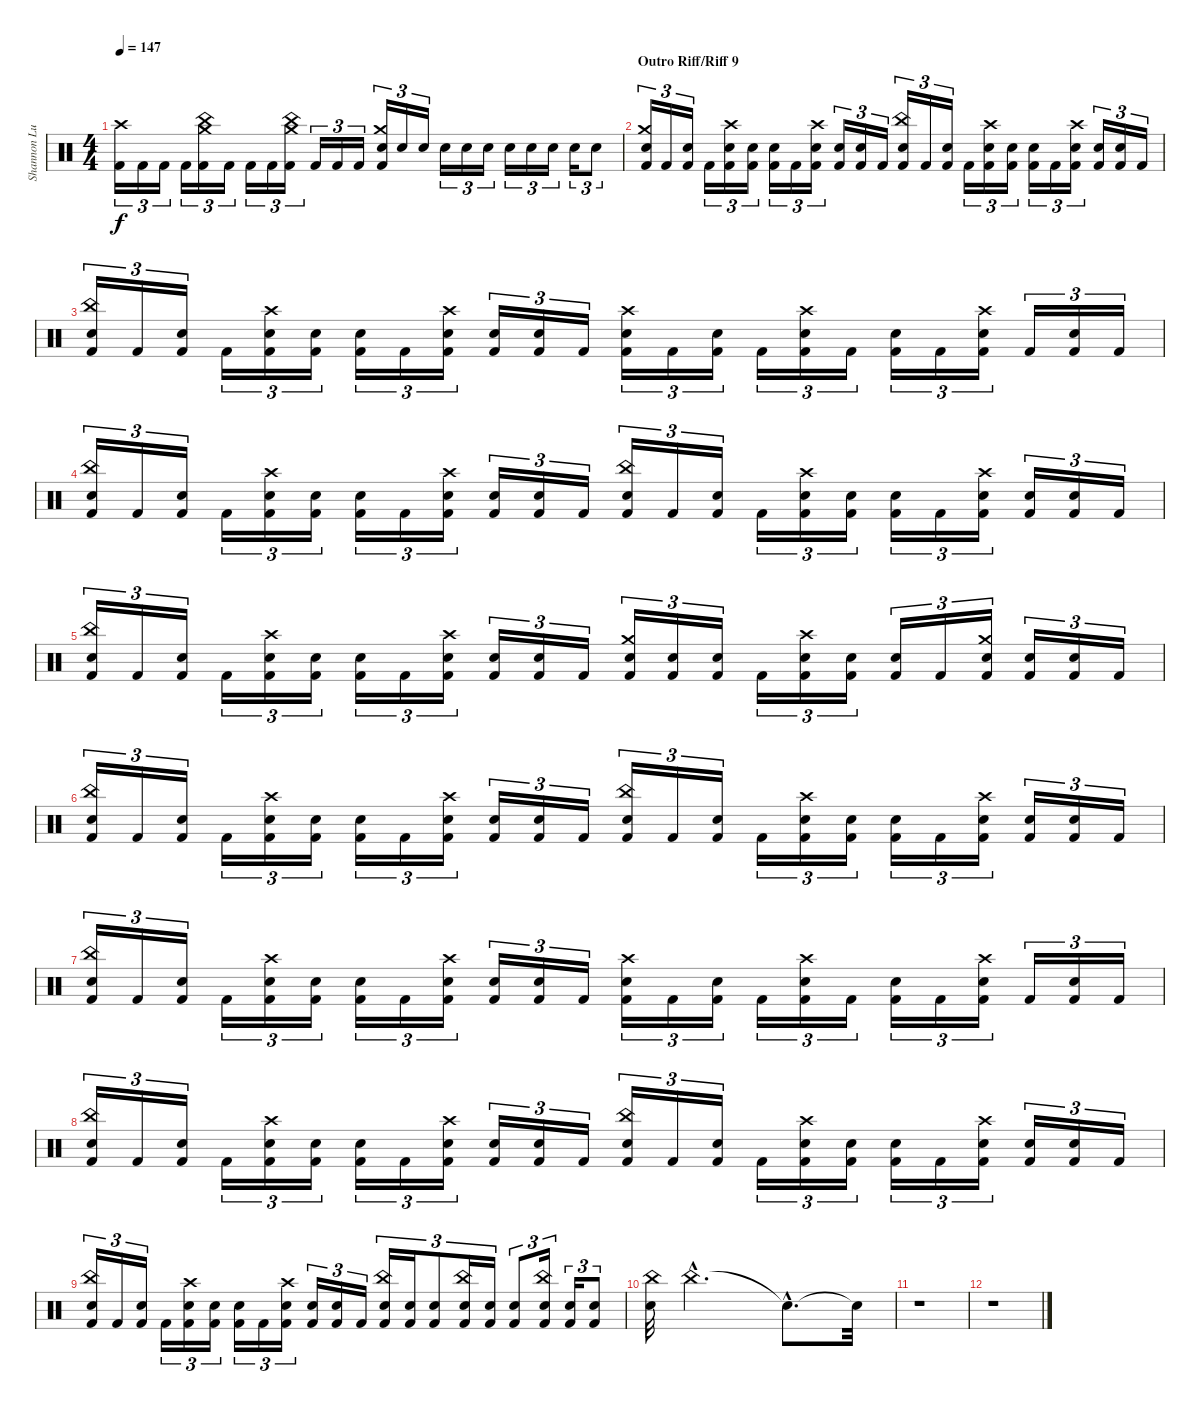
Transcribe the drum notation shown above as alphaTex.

\track ("Shannon Lucas (Drums)" "Shannon Lu") {instrument percussion}
\staff {score}
\articulation defaults
\ts (4 4)
\tempo 147
\clef neutral
\ks c
("Crash high (hit)" "Kick (hit) 2").16{tu (3 2) dy f} "Kick (hit) 2".16{tu (3 2)} "Kick (hit) 2".16{tu (3 2)} "Kick (hit) 2".16{tu (3 2)} ("Crash medium (hit)" "China (hit)" "Kick (hit) 2").16{tu (3 2)} "Kick (hit) 2".16{tu (3 2)} "Kick (hit) 2".16{tu (3 2)} "Kick (hit) 2".16{tu (3 2)} ("Crash medium (hit)" "China (hit)" "Kick (hit) 2").16{tu (3 2)} "Kick (hit) 2".16{tu (3 2)} "Kick (hit) 2".16{tu (3 2)} "Kick (hit) 2".16{tu (3 2)} ("Snare (hit) 2" "Crash medium (hit)" "Kick (hit) 2").16{tu (3 2)} "Snare (hit) 2".16{tu (3 2)} "Snare (hit) 2".16{tu (3 2)} "Snare (hit) 2".16{tu (3 2)} "Snare (hit) 2".16{tu (3 2)} "Snare (hit) 2".16{tu (3 2)} "Snare (hit) 2".16{tu (3 2)} "Snare (hit) 2".16{tu (3 2)} "Snare (hit) 2".16{tu (3 2)} "Snare (hit) 2".16{tu (3 2)} "Snare (hit) 2".8{tu (3 2)} |
\section ("" "Outro Riff/Riff 9")
("Crash medium (hit)" "Snare (hit) 2" "Kick (hit) 2").16{tu (3 2)} "Kick (hit) 2".16{tu (3 2)} ("Snare (hit) 2" "Kick (hit) 2").16{tu (3 2)} "Kick (hit) 2".16{tu (3 2)} ("Crash high (hit)" "Snare (hit) 2" "Kick (hit) 2").16{tu (3 2)} ("Snare (hit) 2" "Kick (hit) 2").16{tu (3 2)} ("Snare (hit) 2" "Kick (hit) 2").16{tu (3 2)} "Kick (hit) 2".16{tu (3 2)} ("Crash high (hit)" "Snare (hit) 2" "Kick (hit) 2").16{tu (3 2)} ("Snare (hit) 2" "Kick (hit) 2").16{tu (3 2)} ("Snare (hit) 2" "Kick (hit) 2").16{tu (3 2)} "Kick (hit) 2".16{tu (3 2)} ("China (hit)" "Snare (hit) 2" "Kick (hit) 2").16{tu (3 2)} "Kick (hit) 2".16{tu (3 2)} ("Snare (hit) 2" "Kick (hit) 2").16{tu (3 2)} "Kick (hit) 2".16{tu (3 2)} ("Crash high (hit)" "Snare (hit) 2" "Kick (hit) 2").16{tu (3 2)} ("Snare (hit) 2" "Kick (hit) 2").16{tu (3 2)} ("Snare (hit) 2" "Kick (hit) 2").16{tu (3 2)} "Kick (hit) 2".16{tu (3 2)} ("Crash high (hit)" "Snare (hit) 2" "Kick (hit) 2").16{tu (3 2)} ("Snare (hit) 2" "Kick (hit) 2").16{tu (3 2)} ("Snare (hit) 2" "Kick (hit) 2").16{tu (3 2)} "Kick (hit) 2".16{tu (3 2)} |
("China (hit)" "Snare (hit) 2" "Kick (hit) 2").16{tu (3 2)} "Kick (hit) 2".16{tu (3 2)} ("Snare (hit) 2" "Kick (hit) 2").16{tu (3 2)} "Kick (hit) 2".16{tu (3 2)} ("Crash high (hit)" "Snare (hit) 2" "Kick (hit) 2").16{tu (3 2)} ("Snare (hit) 2" "Kick (hit) 2").16{tu (3 2)} ("Snare (hit) 2" "Kick (hit) 2").16{tu (3 2)} "Kick (hit) 2".16{tu (3 2)} ("Crash high (hit)" "Snare (hit) 2" "Kick (hit) 2").16{tu (3 2)} ("Snare (hit) 2" "Kick (hit) 2").16{tu (3 2)} ("Snare (hit) 2" "Kick (hit) 2").16{tu (3 2)} "Kick (hit) 2".16{tu (3 2)} ("Crash high (hit)" "Snare (hit) 2" "Kick (hit) 2").16{tu (3 2)} "Kick (hit) 2".16{tu (3 2)} ("Snare (hit) 2" "Kick (hit) 2").16{tu (3 2)} "Kick (hit) 2".16{tu (3 2)} ("Crash high (hit)" "Snare (hit) 2" "Kick (hit) 2").16{tu (3 2)} "Kick (hit) 2".16{tu (3 2)} ("Snare (hit) 2" "Kick (hit) 2").16{tu (3 2)} "Kick (hit) 2".16{tu (3 2)} ("Crash high (hit)" "Snare (hit) 2" "Kick (hit) 2").16{tu (3 2)} "Kick (hit) 2".16{tu (3 2)} ("Snare (hit) 2" "Kick (hit) 2").16{tu (3 2)} "Kick (hit) 2".16{tu (3 2)} |
("China (hit)" "Snare (hit) 2" "Kick (hit) 2").16{tu (3 2)} "Kick (hit) 2".16{tu (3 2)} ("Snare (hit) 2" "Kick (hit) 2").16{tu (3 2)} "Kick (hit) 2".16{tu (3 2)} ("Crash high (hit)" "Snare (hit) 2" "Kick (hit) 2").16{tu (3 2)} ("Snare (hit) 2" "Kick (hit) 2").16{tu (3 2)} ("Snare (hit) 2" "Kick (hit) 2").16{tu (3 2)} "Kick (hit) 2".16{tu (3 2)} ("Crash high (hit)" "Snare (hit) 2" "Kick (hit) 2").16{tu (3 2)} ("Snare (hit) 2" "Kick (hit) 2").16{tu (3 2)} ("Snare (hit) 2" "Kick (hit) 2").16{tu (3 2)} "Kick (hit) 2".16{tu (3 2)} ("China (hit)" "Snare (hit) 2" "Kick (hit) 2").16{tu (3 2)} "Kick (hit) 2".16{tu (3 2)} ("Snare (hit) 2" "Kick (hit) 2").16{tu (3 2)} "Kick (hit) 2".16{tu (3 2)} ("Crash high (hit)" "Snare (hit) 2" "Kick (hit) 2").16{tu (3 2)} ("Snare (hit) 2" "Kick (hit) 2").16{tu (3 2)} ("Snare (hit) 2" "Kick (hit) 2").16{tu (3 2)} "Kick (hit) 2".16{tu (3 2)} ("Crash high (hit)" "Snare (hit) 2" "Kick (hit) 2").16{tu (3 2)} ("Snare (hit) 2" "Kick (hit) 2").16{tu (3 2)} ("Snare (hit) 2" "Kick (hit) 2").16{tu (3 2)} "Kick (hit) 2".16{tu (3 2)} |
("China (hit)" "Snare (hit) 2" "Kick (hit) 2").16{tu (3 2)} "Kick (hit) 2".16{tu (3 2)} ("Snare (hit) 2" "Kick (hit) 2").16{tu (3 2)} "Kick (hit) 2".16{tu (3 2)} ("Crash high (hit)" "Snare (hit) 2" "Kick (hit) 2").16{tu (3 2)} ("Snare (hit) 2" "Kick (hit) 2").16{tu (3 2)} ("Snare (hit) 2" "Kick (hit) 2").16{tu (3 2)} "Kick (hit) 2".16{tu (3 2)} ("Crash high (hit)" "Snare (hit) 2" "Kick (hit) 2").16{tu (3 2)} ("Snare (hit) 2" "Kick (hit) 2").16{tu (3 2)} ("Snare (hit) 2" "Kick (hit) 2").16{tu (3 2)} "Kick (hit) 2".16{tu (3 2)} ("Crash medium (hit)" "Snare (hit) 2" "Kick (hit) 2").16{tu (3 2)} ("Snare (hit) 2" "Kick (hit) 2").16{tu (3 2)} ("Snare (hit) 2" "Kick (hit) 2").16{tu (3 2)} "Kick (hit) 2".16{tu (3 2)} ("Crash high (hit)" "Snare (hit) 2" "Kick (hit) 2").16{tu (3 2)} ("Snare (hit) 2" "Kick (hit) 2").16{tu (3 2)} ("Snare (hit) 2" "Kick (hit) 2").16{tu (3 2)} "Kick (hit) 2".16{tu (3 2)} ("Crash medium (hit)" "Snare (hit) 2" "Kick (hit) 2").16{tu (3 2)} ("Snare (hit) 2" "Kick (hit) 2").16{tu (3 2)} ("Snare (hit) 2" "Kick (hit) 2").16{tu (3 2)} "Kick (hit) 2".16{tu (3 2)} |
("China (hit)" "Snare (hit) 2" "Kick (hit) 2").16{tu (3 2)} "Kick (hit) 2".16{tu (3 2)} ("Snare (hit) 2" "Kick (hit) 2").16{tu (3 2)} "Kick (hit) 2".16{tu (3 2)} ("Crash high (hit)" "Snare (hit) 2" "Kick (hit) 2").16{tu (3 2)} ("Snare (hit) 2" "Kick (hit) 2").16{tu (3 2)} ("Snare (hit) 2" "Kick (hit) 2").16{tu (3 2)} "Kick (hit) 2".16{tu (3 2)} ("Crash high (hit)" "Snare (hit) 2" "Kick (hit) 2").16{tu (3 2)} ("Snare (hit) 2" "Kick (hit) 2").16{tu (3 2)} ("Snare (hit) 2" "Kick (hit) 2").16{tu (3 2)} "Kick (hit) 2".16{tu (3 2)} ("China (hit)" "Snare (hit) 2" "Kick (hit) 2").16{tu (3 2)} "Kick (hit) 2".16{tu (3 2)} ("Snare (hit) 2" "Kick (hit) 2").16{tu (3 2)} "Kick (hit) 2".16{tu (3 2)} ("Crash high (hit)" "Snare (hit) 2" "Kick (hit) 2").16{tu (3 2)} ("Snare (hit) 2" "Kick (hit) 2").16{tu (3 2)} ("Snare (hit) 2" "Kick (hit) 2").16{tu (3 2)} "Kick (hit) 2".16{tu (3 2)} ("Crash high (hit)" "Snare (hit) 2" "Kick (hit) 2").16{tu (3 2)} ("Snare (hit) 2" "Kick (hit) 2").16{tu (3 2)} ("Snare (hit) 2" "Kick (hit) 2").16{tu (3 2)} "Kick (hit) 2".16{tu (3 2)} |
("China (hit)" "Snare (hit) 2" "Kick (hit) 2").16{tu (3 2)} "Kick (hit) 2".16{tu (3 2)} ("Snare (hit) 2" "Kick (hit) 2").16{tu (3 2)} "Kick (hit) 2".16{tu (3 2)} ("Crash high (hit)" "Snare (hit) 2" "Kick (hit) 2").16{tu (3 2)} ("Snare (hit) 2" "Kick (hit) 2").16{tu (3 2)} ("Snare (hit) 2" "Kick (hit) 2").16{tu (3 2)} "Kick (hit) 2".16{tu (3 2)} ("Crash high (hit)" "Snare (hit) 2" "Kick (hit) 2").16{tu (3 2)} ("Snare (hit) 2" "Kick (hit) 2").16{tu (3 2)} ("Snare (hit) 2" "Kick (hit) 2").16{tu (3 2)} "Kick (hit) 2".16{tu (3 2)} ("Crash high (hit)" "Snare (hit) 2" "Kick (hit) 2").16{tu (3 2)} "Kick (hit) 2".16{tu (3 2)} ("Snare (hit) 2" "Kick (hit) 2").16{tu (3 2)} "Kick (hit) 2".16{tu (3 2)} ("Crash high (hit)" "Snare (hit) 2" "Kick (hit) 2").16{tu (3 2)} "Kick (hit) 2".16{tu (3 2)} ("Snare (hit) 2" "Kick (hit) 2").16{tu (3 2)} "Kick (hit) 2".16{tu (3 2)} ("Crash high (hit)" "Snare (hit) 2" "Kick (hit) 2").16{tu (3 2)} "Kick (hit) 2".16{tu (3 2)} ("Snare (hit) 2" "Kick (hit) 2").16{tu (3 2)} "Kick (hit) 2".16{tu (3 2)} |
("China (hit)" "Snare (hit) 2" "Kick (hit) 2").16{tu (3 2)} "Kick (hit) 2".16{tu (3 2)} ("Snare (hit) 2" "Kick (hit) 2").16{tu (3 2)} "Kick (hit) 2".16{tu (3 2)} ("Crash high (hit)" "Snare (hit) 2" "Kick (hit) 2").16{tu (3 2)} ("Snare (hit) 2" "Kick (hit) 2").16{tu (3 2)} ("Snare (hit) 2" "Kick (hit) 2").16{tu (3 2)} "Kick (hit) 2".16{tu (3 2)} ("Crash high (hit)" "Snare (hit) 2" "Kick (hit) 2").16{tu (3 2)} ("Snare (hit) 2" "Kick (hit) 2").16{tu (3 2)} ("Snare (hit) 2" "Kick (hit) 2").16{tu (3 2)} "Kick (hit) 2".16{tu (3 2)} ("China (hit)" "Snare (hit) 2" "Kick (hit) 2").16{tu (3 2)} "Kick (hit) 2".16{tu (3 2)} ("Snare (hit) 2" "Kick (hit) 2").16{tu (3 2)} "Kick (hit) 2".16{tu (3 2)} ("Crash high (hit)" "Snare (hit) 2" "Kick (hit) 2").16{tu (3 2)} ("Snare (hit) 2" "Kick (hit) 2").16{tu (3 2)} ("Snare (hit) 2" "Kick (hit) 2").16{tu (3 2)} "Kick (hit) 2".16{tu (3 2)} ("Crash high (hit)" "Snare (hit) 2" "Kick (hit) 2").16{tu (3 2)} ("Snare (hit) 2" "Kick (hit) 2").16{tu (3 2)} ("Snare (hit) 2" "Kick (hit) 2").16{tu (3 2)} "Kick (hit) 2".16{tu (3 2)} |
("China (hit)" "Snare (hit) 2" "Kick (hit) 2").16{tu (3 2)} "Kick (hit) 2".16{tu (3 2)} ("Snare (hit) 2" "Kick (hit) 2").16{tu (3 2)} "Kick (hit) 2".16{tu (3 2)} ("Crash high (hit)" "Snare (hit) 2" "Kick (hit) 2").16{tu (3 2)} ("Snare (hit) 2" "Kick (hit) 2").16{tu (3 2)} ("Snare (hit) 2" "Kick (hit) 2").16{tu (3 2)} "Kick (hit) 2".16{tu (3 2)} ("Crash high (hit)" "Snare (hit) 2" "Kick (hit) 2").16{tu (3 2)} ("Snare (hit) 2" "Kick (hit) 2").16{tu (3 2)} ("Snare (hit) 2" "Kick (hit) 2").16{tu (3 2)} "Kick (hit) 2".16{tu (3 2)} ("China (hit)" "Snare (hit) 2" "Kick (hit) 2").16{tu (3 2)} ("Snare (hit) 2" "Kick (hit) 2").16{tu (3 2)} ("Snare (hit) 2" "Kick (hit) 2").8{tu (3 2)} ("China (hit)" "Snare (hit) 2" "Kick (hit) 2").16{tu (3 2)} ("Snare (hit) 2" "Kick (hit) 2").16{tu (3 2)} ("Snare (hit) 2" "Kick (hit) 2").8{tu (3 2)} ("China (hit)" "Snare (hit) 2" "Kick (hit) 2").16{tu (3 2)} ("Snare (hit) 2" "Kick (hit) 2").16{tu (3 2)} ("Snare (hit) 2" "Kick (hit) 2").8{tu (3 2)} |
("China (hit)" "Snare (hit) 2").32 "China (hit)"{hac}.2{d balance 16} "Snare (hit)"{hac t}.8{d} "Snare (hit)"{t}.32 |
r.1 |
r.1
